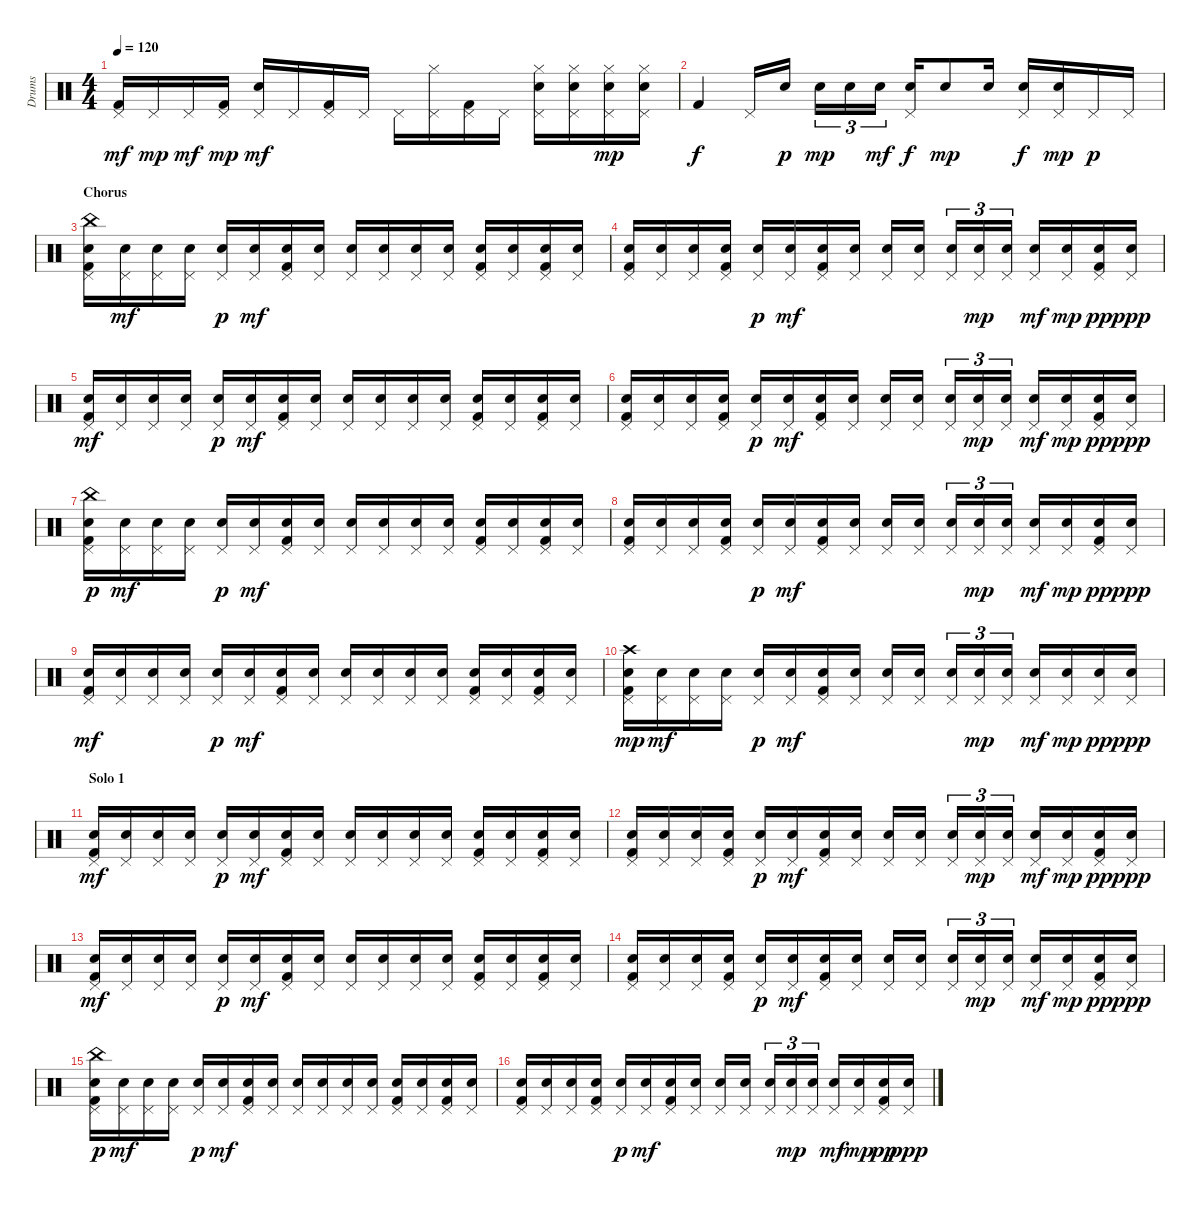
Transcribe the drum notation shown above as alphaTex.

\track ("Drums" "Drums") {instrument percussion}
\staff {score}
\articulation defaults
\ts (4 4)
\tempo 120
\clef neutral
\ks c
("Pedal Hi-Hat (hit)" "Kick (hit) 2").16{dy mf} "Pedal Hi-Hat (hit)".16{dy mp} "Pedal Hi-Hat (hit)".16{dy mf} ("Pedal Hi-Hat (hit)" "Kick (hit) 2").16{dy mp} ("Pedal Hi-Hat (hit)" "Electric Snare (hit)").16{dy mf} "Pedal Hi-Hat (hit)".16 ("Pedal Hi-Hat (hit)" "Kick (hit) 2").16 "Pedal Hi-Hat (hit)".16 "Pedal Hi-Hat (hit)".16 ("Pedal Hi-Hat (hit)" "Hi-Hat (closed)").16 ("Pedal Hi-Hat (hit)" "Kick (hit) 2").16 "Pedal Hi-Hat (hit)".16 ("Pedal Hi-Hat (hit)" "Electric Snare (hit)" "Hi-Hat (closed)").16 ("Pedal Hi-Hat (hit)" "Electric Snare (hit)" "Hi-Hat (closed)").16 ("Pedal Hi-Hat (hit)" "Electric Snare (hit)" "Hi-Hat (closed)").16{dy mp} ("Pedal Hi-Hat (hit)" "Electric Snare (hit)" "Hi-Hat (closed)").16 |
"Kick (hit) 2".4{dy f} "Pedal Hi-Hat (hit)".16 "Electric Snare (hit)".16{dy p} "Electric Snare (hit)".16{tu (3 2) dy mp} "Electric Snare (hit)".16{tu (3 2)} "Electric Snare (hit)".16{tu (3 2) dy mf} ("Electric Snare (hit)" "Pedal Hi-Hat (hit)").16{dy f} "Electric Snare (hit)".8{dy mp} "Electric Snare (hit)".16 ("Electric Snare (hit)" "Pedal Hi-Hat (hit)").16{dy f} ("Electric Snare (hit)" "Pedal Hi-Hat (hit)").16{dy mp} "Pedal Hi-Hat (hit)".16{dy p} "Pedal Hi-Hat (hit)".16 |
\section ("" "Chorus")
("Electric Snare (hit)" "Pedal Hi-Hat (hit)" "Kick (hit) 2" "China (hit)").16 ("Electric Snare (hit)" "Pedal Hi-Hat (hit)").16{dy mf} ("Electric Snare (hit)" "Pedal Hi-Hat (hit)").16 ("Electric Snare (hit)" "Pedal Hi-Hat (hit)").16 ("Pedal Hi-Hat (hit)" "Electric Snare (hit)").16{dy p} ("Electric Snare (hit)" "Pedal Hi-Hat (hit)").16{dy mf} ("Electric Snare (hit)" "Pedal Hi-Hat (hit)" "Kick (hit) 2").16 ("Electric Snare (hit)" "Pedal Hi-Hat (hit)").16 ("Electric Snare (hit)" "Pedal Hi-Hat (hit)").16 ("Electric Snare (hit)" "Pedal Hi-Hat (hit)").16 ("Electric Snare (hit)" "Pedal Hi-Hat (hit)").16 ("Electric Snare (hit)" "Pedal Hi-Hat (hit)").16 ("Electric Snare (hit)" "Pedal Hi-Hat (hit)" "Kick (hit) 2").16 ("Electric Snare (hit)" "Pedal Hi-Hat (hit)").16 ("Electric Snare (hit)" "Pedal Hi-Hat (hit)" "Kick (hit) 2").16 ("Electric Snare (hit)" "Pedal Hi-Hat (hit)").16 |
("Electric Snare (hit)" "Pedal Hi-Hat (hit)" "Kick (hit) 2").16 ("Electric Snare (hit)" "Pedal Hi-Hat (hit)").16 ("Electric Snare (hit)" "Pedal Hi-Hat (hit)").16 ("Electric Snare (hit)" "Pedal Hi-Hat (hit)" "Kick (hit) 2").16 ("Pedal Hi-Hat (hit)" "Electric Snare (hit)").16{dy p} ("Electric Snare (hit)" "Pedal Hi-Hat (hit)").16{dy mf} ("Electric Snare (hit)" "Pedal Hi-Hat (hit)" "Kick (hit) 2").16 ("Electric Snare (hit)" "Pedal Hi-Hat (hit)").16 ("Electric Snare (hit)" "Pedal Hi-Hat (hit)").16 ("Electric Snare (hit)" "Pedal Hi-Hat (hit)").16 ("Electric Snare (hit)" "Pedal Hi-Hat (hit)").16{tu (3 2)} ("Electric Snare (hit)" "Pedal Hi-Hat (hit)").16{tu (3 2) dy mp} ("Electric Snare (hit)" "Pedal Hi-Hat (hit)").16{tu (3 2)} ("Electric Snare (hit)" "Pedal Hi-Hat (hit)").16{dy mf} ("Electric Snare (hit)" "Pedal Hi-Hat (hit)").16{dy mp} ("Electric Snare (hit)" "Pedal Hi-Hat (hit)" "Kick (hit) 2").16{dy pp} ("Electric Snare (hit)" "Pedal Hi-Hat (hit)").16{dy ppp} |
("Electric Snare (hit)" "Pedal Hi-Hat (hit)" "Kick (hit) 2").16{dy mf} ("Electric Snare (hit)" "Pedal Hi-Hat (hit)").16 ("Electric Snare (hit)" "Pedal Hi-Hat (hit)").16 ("Electric Snare (hit)" "Pedal Hi-Hat (hit)").16 ("Pedal Hi-Hat (hit)" "Electric Snare (hit)").16{dy p} ("Electric Snare (hit)" "Pedal Hi-Hat (hit)").16{dy mf} ("Electric Snare (hit)" "Pedal Hi-Hat (hit)" "Kick (hit) 2").16 ("Electric Snare (hit)" "Pedal Hi-Hat (hit)").16 ("Electric Snare (hit)" "Pedal Hi-Hat (hit)").16 ("Electric Snare (hit)" "Pedal Hi-Hat (hit)").16 ("Electric Snare (hit)" "Pedal Hi-Hat (hit)").16 ("Electric Snare (hit)" "Pedal Hi-Hat (hit)").16 ("Electric Snare (hit)" "Pedal Hi-Hat (hit)" "Kick (hit) 2").16 ("Electric Snare (hit)" "Pedal Hi-Hat (hit)").16 ("Electric Snare (hit)" "Pedal Hi-Hat (hit)" "Kick (hit) 2").16 ("Electric Snare (hit)" "Pedal Hi-Hat (hit)").16 |
("Electric Snare (hit)" "Pedal Hi-Hat (hit)" "Kick (hit) 2").16 ("Electric Snare (hit)" "Pedal Hi-Hat (hit)").16 ("Electric Snare (hit)" "Pedal Hi-Hat (hit)").16 ("Electric Snare (hit)" "Pedal Hi-Hat (hit)" "Kick (hit) 2").16 ("Pedal Hi-Hat (hit)" "Electric Snare (hit)").16{dy p} ("Electric Snare (hit)" "Pedal Hi-Hat (hit)").16{dy mf} ("Electric Snare (hit)" "Pedal Hi-Hat (hit)" "Kick (hit) 2").16 ("Electric Snare (hit)" "Pedal Hi-Hat (hit)").16 ("Electric Snare (hit)" "Pedal Hi-Hat (hit)").16 ("Electric Snare (hit)" "Pedal Hi-Hat (hit)").16 ("Electric Snare (hit)" "Pedal Hi-Hat (hit)").16{tu (3 2)} ("Electric Snare (hit)" "Pedal Hi-Hat (hit)").16{tu (3 2) dy mp} ("Electric Snare (hit)" "Pedal Hi-Hat (hit)").16{tu (3 2)} ("Electric Snare (hit)" "Pedal Hi-Hat (hit)").16{dy mf} ("Electric Snare (hit)" "Pedal Hi-Hat (hit)").16{dy mp} ("Electric Snare (hit)" "Pedal Hi-Hat (hit)" "Kick (hit) 2").16{dy pp} ("Electric Snare (hit)" "Pedal Hi-Hat (hit)").16{dy ppp} |
("Electric Snare (hit)" "Pedal Hi-Hat (hit)" "Kick (hit) 2" "China (hit)").16{dy p} ("Electric Snare (hit)" "Pedal Hi-Hat (hit)").16{dy mf} ("Electric Snare (hit)" "Pedal Hi-Hat (hit)").16 ("Electric Snare (hit)" "Pedal Hi-Hat (hit)").16 ("Pedal Hi-Hat (hit)" "Electric Snare (hit)").16{dy p} ("Electric Snare (hit)" "Pedal Hi-Hat (hit)").16{dy mf} ("Electric Snare (hit)" "Pedal Hi-Hat (hit)" "Kick (hit) 2").16 ("Electric Snare (hit)" "Pedal Hi-Hat (hit)").16 ("Electric Snare (hit)" "Pedal Hi-Hat (hit)").16 ("Electric Snare (hit)" "Pedal Hi-Hat (hit)").16 ("Electric Snare (hit)" "Pedal Hi-Hat (hit)").16 ("Electric Snare (hit)" "Pedal Hi-Hat (hit)").16 ("Electric Snare (hit)" "Pedal Hi-Hat (hit)" "Kick (hit) 2").16 ("Electric Snare (hit)" "Pedal Hi-Hat (hit)").16 ("Electric Snare (hit)" "Pedal Hi-Hat (hit)" "Kick (hit) 2").16 ("Electric Snare (hit)" "Pedal Hi-Hat (hit)").16 |
("Electric Snare (hit)" "Pedal Hi-Hat (hit)" "Kick (hit) 2").16 ("Electric Snare (hit)" "Pedal Hi-Hat (hit)").16 ("Electric Snare (hit)" "Pedal Hi-Hat (hit)").16 ("Electric Snare (hit)" "Pedal Hi-Hat (hit)" "Kick (hit) 2").16 ("Pedal Hi-Hat (hit)" "Electric Snare (hit)").16{dy p} ("Electric Snare (hit)" "Pedal Hi-Hat (hit)").16{dy mf} ("Electric Snare (hit)" "Pedal Hi-Hat (hit)" "Kick (hit) 2").16 ("Electric Snare (hit)" "Pedal Hi-Hat (hit)").16 ("Electric Snare (hit)" "Pedal Hi-Hat (hit)").16 ("Electric Snare (hit)" "Pedal Hi-Hat (hit)").16 ("Electric Snare (hit)" "Pedal Hi-Hat (hit)").16{tu (3 2)} ("Electric Snare (hit)" "Pedal Hi-Hat (hit)").16{tu (3 2) dy mp} ("Electric Snare (hit)" "Pedal Hi-Hat (hit)").16{tu (3 2)} ("Electric Snare (hit)" "Pedal Hi-Hat (hit)").16{dy mf} ("Electric Snare (hit)" "Pedal Hi-Hat (hit)").16{dy mp} ("Electric Snare (hit)" "Pedal Hi-Hat (hit)" "Kick (hit) 2").16{dy pp} ("Electric Snare (hit)" "Pedal Hi-Hat (hit)").16{dy ppp} |
("Electric Snare (hit)" "Pedal Hi-Hat (hit)" "Kick (hit) 2").16{dy mf} ("Electric Snare (hit)" "Pedal Hi-Hat (hit)").16 ("Electric Snare (hit)" "Pedal Hi-Hat (hit)").16 ("Electric Snare (hit)" "Pedal Hi-Hat (hit)").16 ("Pedal Hi-Hat (hit)" "Electric Snare (hit)").16{dy p} ("Electric Snare (hit)" "Pedal Hi-Hat (hit)").16{dy mf} ("Electric Snare (hit)" "Pedal Hi-Hat (hit)" "Kick (hit) 2").16 ("Electric Snare (hit)" "Pedal Hi-Hat (hit)").16 ("Electric Snare (hit)" "Pedal Hi-Hat (hit)").16 ("Electric Snare (hit)" "Pedal Hi-Hat (hit)").16 ("Electric Snare (hit)" "Pedal Hi-Hat (hit)").16 ("Electric Snare (hit)" "Pedal Hi-Hat (hit)").16 ("Electric Snare (hit)" "Pedal Hi-Hat (hit)" "Kick (hit) 2").16 ("Electric Snare (hit)" "Pedal Hi-Hat (hit)").16 ("Electric Snare (hit)" "Pedal Hi-Hat (hit)" "Kick (hit) 2").16 ("Electric Snare (hit)" "Pedal Hi-Hat (hit)").16 |
("Electric Snare (hit)" "Pedal Hi-Hat (hit)" "Kick (hit) 2" "Crash high (hit)").16{dy mp} ("Electric Snare (hit)" "Pedal Hi-Hat (hit)").16{dy mf} ("Electric Snare (hit)" "Pedal Hi-Hat (hit)").16 ("Electric Snare (hit)" "Pedal Hi-Hat (hit)").16 ("Pedal Hi-Hat (hit)" "Electric Snare (hit)").16{dy p} ("Electric Snare (hit)" "Pedal Hi-Hat (hit)").16{dy mf} ("Electric Snare (hit)" "Pedal Hi-Hat (hit)" "Kick (hit) 2").16 ("Electric Snare (hit)" "Pedal Hi-Hat (hit)").16 ("Electric Snare (hit)" "Pedal Hi-Hat (hit)").16 ("Electric Snare (hit)" "Pedal Hi-Hat (hit)").16 ("Electric Snare (hit)" "Pedal Hi-Hat (hit)").16{tu (3 2)} ("Electric Snare (hit)" "Pedal Hi-Hat (hit)").16{tu (3 2) dy mp} ("Electric Snare (hit)" "Pedal Hi-Hat (hit)").16{tu (3 2)} ("Electric Snare (hit)" "Pedal Hi-Hat (hit)").16{dy mf} ("Electric Snare (hit)" "Pedal Hi-Hat (hit)").16{dy mp} ("Electric Snare (hit)" "Pedal Hi-Hat (hit)").16{dy pp} ("Electric Snare (hit)" "Pedal Hi-Hat (hit)").16{dy ppp} |
\section ("" "Solo 1")
("Electric Snare (hit)" "Pedal Hi-Hat (hit)" "Kick (hit) 2").16{dy mf} ("Electric Snare (hit)" "Pedal Hi-Hat (hit)").16 ("Electric Snare (hit)" "Pedal Hi-Hat (hit)").16 ("Electric Snare (hit)" "Pedal Hi-Hat (hit)").16 ("Pedal Hi-Hat (hit)" "Electric Snare (hit)").16{dy p} ("Electric Snare (hit)" "Pedal Hi-Hat (hit)").16{dy mf} ("Electric Snare (hit)" "Pedal Hi-Hat (hit)" "Kick (hit) 2").16 ("Electric Snare (hit)" "Pedal Hi-Hat (hit)").16 ("Electric Snare (hit)" "Pedal Hi-Hat (hit)").16 ("Electric Snare (hit)" "Pedal Hi-Hat (hit)").16 ("Electric Snare (hit)" "Pedal Hi-Hat (hit)").16 ("Electric Snare (hit)" "Pedal Hi-Hat (hit)").16 ("Electric Snare (hit)" "Pedal Hi-Hat (hit)" "Kick (hit) 2").16 ("Electric Snare (hit)" "Pedal Hi-Hat (hit)").16 ("Electric Snare (hit)" "Pedal Hi-Hat (hit)" "Kick (hit) 2").16 ("Electric Snare (hit)" "Pedal Hi-Hat (hit)").16 |
("Electric Snare (hit)" "Pedal Hi-Hat (hit)" "Kick (hit) 2").16 ("Electric Snare (hit)" "Pedal Hi-Hat (hit)").16 ("Electric Snare (hit)" "Pedal Hi-Hat (hit)").16 ("Electric Snare (hit)" "Pedal Hi-Hat (hit)" "Kick (hit) 2").16 ("Pedal Hi-Hat (hit)" "Electric Snare (hit)").16{dy p} ("Electric Snare (hit)" "Pedal Hi-Hat (hit)").16{dy mf} ("Electric Snare (hit)" "Pedal Hi-Hat (hit)" "Kick (hit) 2").16 ("Electric Snare (hit)" "Pedal Hi-Hat (hit)").16 ("Electric Snare (hit)" "Pedal Hi-Hat (hit)").16 ("Electric Snare (hit)" "Pedal Hi-Hat (hit)").16 ("Electric Snare (hit)" "Pedal Hi-Hat (hit)").16{tu (3 2)} ("Electric Snare (hit)" "Pedal Hi-Hat (hit)").16{tu (3 2) dy mp} ("Electric Snare (hit)" "Pedal Hi-Hat (hit)").16{tu (3 2)} ("Electric Snare (hit)" "Pedal Hi-Hat (hit)").16{dy mf} ("Electric Snare (hit)" "Pedal Hi-Hat (hit)").16{dy mp} ("Electric Snare (hit)" "Pedal Hi-Hat (hit)" "Kick (hit) 2").16{dy pp} ("Electric Snare (hit)" "Pedal Hi-Hat (hit)").16{dy ppp} |
("Electric Snare (hit)" "Pedal Hi-Hat (hit)" "Kick (hit) 2").16{dy mf} ("Electric Snare (hit)" "Pedal Hi-Hat (hit)").16 ("Electric Snare (hit)" "Pedal Hi-Hat (hit)").16 ("Electric Snare (hit)" "Pedal Hi-Hat (hit)").16 ("Pedal Hi-Hat (hit)" "Electric Snare (hit)").16{dy p} ("Electric Snare (hit)" "Pedal Hi-Hat (hit)").16{dy mf} ("Electric Snare (hit)" "Pedal Hi-Hat (hit)" "Kick (hit) 2").16 ("Electric Snare (hit)" "Pedal Hi-Hat (hit)").16 ("Electric Snare (hit)" "Pedal Hi-Hat (hit)").16 ("Electric Snare (hit)" "Pedal Hi-Hat (hit)").16 ("Electric Snare (hit)" "Pedal Hi-Hat (hit)").16 ("Electric Snare (hit)" "Pedal Hi-Hat (hit)").16 ("Electric Snare (hit)" "Pedal Hi-Hat (hit)" "Kick (hit) 2").16 ("Electric Snare (hit)" "Pedal Hi-Hat (hit)").16 ("Electric Snare (hit)" "Pedal Hi-Hat (hit)" "Kick (hit) 2").16 ("Electric Snare (hit)" "Pedal Hi-Hat (hit)").16 |
("Electric Snare (hit)" "Pedal Hi-Hat (hit)" "Kick (hit) 2").16 ("Electric Snare (hit)" "Pedal Hi-Hat (hit)").16 ("Electric Snare (hit)" "Pedal Hi-Hat (hit)").16 ("Electric Snare (hit)" "Pedal Hi-Hat (hit)" "Kick (hit) 2").16 ("Pedal Hi-Hat (hit)" "Electric Snare (hit)").16{dy p} ("Electric Snare (hit)" "Pedal Hi-Hat (hit)").16{dy mf} ("Electric Snare (hit)" "Pedal Hi-Hat (hit)" "Kick (hit) 2").16 ("Electric Snare (hit)" "Pedal Hi-Hat (hit)").16 ("Electric Snare (hit)" "Pedal Hi-Hat (hit)").16 ("Electric Snare (hit)" "Pedal Hi-Hat (hit)").16 ("Electric Snare (hit)" "Pedal Hi-Hat (hit)").16{tu (3 2)} ("Electric Snare (hit)" "Pedal Hi-Hat (hit)").16{tu (3 2) dy mp} ("Electric Snare (hit)" "Pedal Hi-Hat (hit)").16{tu (3 2)} ("Electric Snare (hit)" "Pedal Hi-Hat (hit)").16{dy mf} ("Electric Snare (hit)" "Pedal Hi-Hat (hit)").16{dy mp} ("Electric Snare (hit)" "Pedal Hi-Hat (hit)" "Kick (hit) 2").16{dy pp} ("Electric Snare (hit)" "Pedal Hi-Hat (hit)").16{dy ppp} |
("Electric Snare (hit)" "Pedal Hi-Hat (hit)" "Kick (hit) 2" "China (hit)").16{dy p} ("Electric Snare (hit)" "Pedal Hi-Hat (hit)").16{dy mf} ("Electric Snare (hit)" "Pedal Hi-Hat (hit)").16 ("Electric Snare (hit)" "Pedal Hi-Hat (hit)").16 ("Pedal Hi-Hat (hit)" "Electric Snare (hit)").16{dy p} ("Electric Snare (hit)" "Pedal Hi-Hat (hit)").16{dy mf} ("Electric Snare (hit)" "Pedal Hi-Hat (hit)" "Kick (hit) 2").16 ("Electric Snare (hit)" "Pedal Hi-Hat (hit)").16 ("Electric Snare (hit)" "Pedal Hi-Hat (hit)").16 ("Electric Snare (hit)" "Pedal Hi-Hat (hit)").16 ("Electric Snare (hit)" "Pedal Hi-Hat (hit)").16 ("Electric Snare (hit)" "Pedal Hi-Hat (hit)").16 ("Electric Snare (hit)" "Pedal Hi-Hat (hit)" "Kick (hit) 2").16 ("Electric Snare (hit)" "Pedal Hi-Hat (hit)").16 ("Electric Snare (hit)" "Pedal Hi-Hat (hit)" "Kick (hit) 2").16 ("Electric Snare (hit)" "Pedal Hi-Hat (hit)").16 |
("Electric Snare (hit)" "Pedal Hi-Hat (hit)" "Kick (hit) 2").16 ("Electric Snare (hit)" "Pedal Hi-Hat (hit)").16 ("Electric Snare (hit)" "Pedal Hi-Hat (hit)").16 ("Electric Snare (hit)" "Pedal Hi-Hat (hit)" "Kick (hit) 2").16 ("Pedal Hi-Hat (hit)" "Electric Snare (hit)").16{dy p} ("Electric Snare (hit)" "Pedal Hi-Hat (hit)").16{dy mf} ("Electric Snare (hit)" "Pedal Hi-Hat (hit)" "Kick (hit) 2").16 ("Electric Snare (hit)" "Pedal Hi-Hat (hit)").16 ("Electric Snare (hit)" "Pedal Hi-Hat (hit)").16 ("Electric Snare (hit)" "Pedal Hi-Hat (hit)").16 ("Electric Snare (hit)" "Pedal Hi-Hat (hit)").16{tu (3 2)} ("Electric Snare (hit)" "Pedal Hi-Hat (hit)").16{tu (3 2) dy mp} ("Electric Snare (hit)" "Pedal Hi-Hat (hit)").16{tu (3 2)} ("Electric Snare (hit)" "Pedal Hi-Hat (hit)").16{dy mf} ("Electric Snare (hit)" "Pedal Hi-Hat (hit)").16{dy mp} ("Electric Snare (hit)" "Pedal Hi-Hat (hit)" "Kick (hit) 2").16{dy pp} ("Electric Snare (hit)" "Pedal Hi-Hat (hit)").16{dy ppp}
